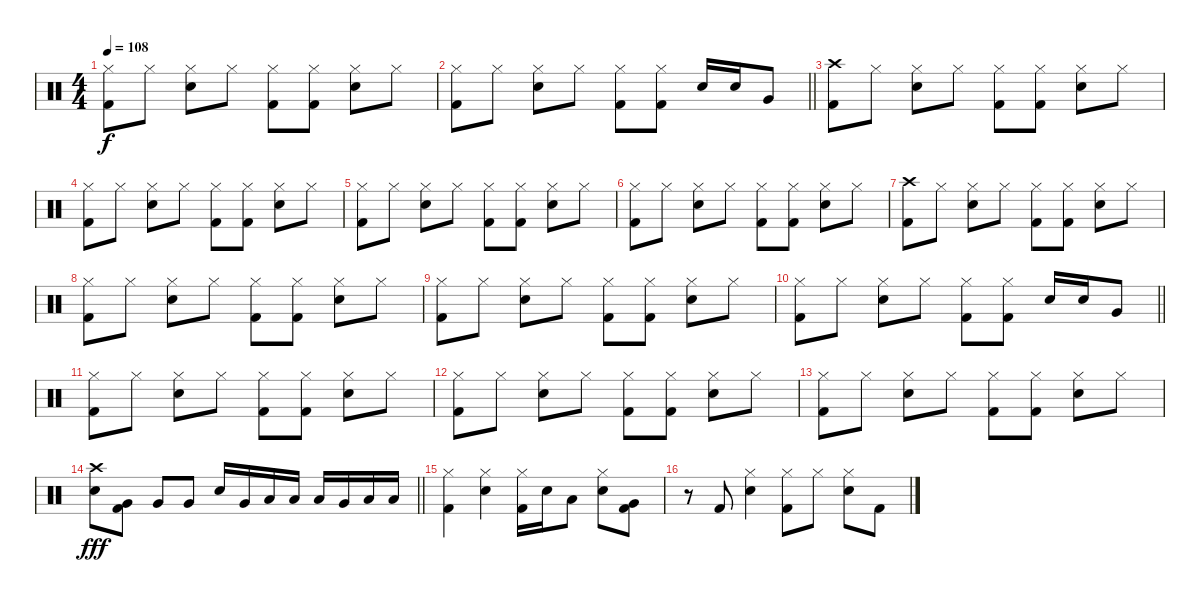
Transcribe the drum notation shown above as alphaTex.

\track "" {instrument percussion}
\staff {score}
\articulation defaults
\ts (4 4)
\tempo 108
\clef neutral
\ks c
("Kick (hit) 2" "Hi-Hat (closed)").8{dy f} "Hi-Hat (closed)".8 ("Electric Snare (hit)" "Hi-Hat (closed)").8 "Hi-Hat (closed)".8 ("Kick (hit) 2" "Hi-Hat (closed)").8 ("Hi-Hat (closed)" "Kick (hit) 2").8 ("Electric Snare (hit)" "Hi-Hat (closed)").8 "Hi-Hat (closed)".8 |
\barLineRight lightlight
("Kick (hit) 2" "Hi-Hat (closed)").8 "Hi-Hat (closed)".8 ("Electric Snare (hit)" "Hi-Hat (closed)").8 "Hi-Hat (closed)".8 ("Kick (hit) 2" "Hi-Hat (closed)").8 ("Hi-Hat (closed)" "Kick (hit) 2").8 "Electric Snare (hit)".16 "Electric Snare (hit)".16 "Very Low Tom (hit)".8 |
("Crash high (hit)" "Kick (hit) 2").8 "Hi-Hat (closed)".8 ("Electric Snare (hit)" "Hi-Hat (closed)").8 "Hi-Hat (closed)".8 ("Kick (hit) 2" "Hi-Hat (closed)").8 ("Hi-Hat (closed)" "Kick (hit) 2").8 ("Electric Snare (hit)" "Hi-Hat (closed)").8 "Hi-Hat (closed)".8 |
("Kick (hit) 2" "Hi-Hat (closed)").8 "Hi-Hat (closed)".8 ("Electric Snare (hit)" "Hi-Hat (closed)").8 "Hi-Hat (closed)".8 ("Kick (hit) 2" "Hi-Hat (closed)").8 ("Hi-Hat (closed)" "Kick (hit) 2").8 ("Electric Snare (hit)" "Hi-Hat (closed)").8 "Hi-Hat (closed)".8 |
("Kick (hit) 2" "Hi-Hat (closed)").8 "Hi-Hat (closed)".8 ("Electric Snare (hit)" "Hi-Hat (closed)").8 "Hi-Hat (closed)".8 ("Kick (hit) 2" "Hi-Hat (closed)").8 ("Hi-Hat (closed)" "Kick (hit) 2").8 ("Electric Snare (hit)" "Hi-Hat (closed)").8 "Hi-Hat (closed)".8 |
("Kick (hit) 2" "Hi-Hat (closed)").8 "Hi-Hat (closed)".8 ("Electric Snare (hit)" "Hi-Hat (closed)").8 "Hi-Hat (closed)".8 ("Kick (hit) 2" "Hi-Hat (closed)").8 ("Hi-Hat (closed)" "Kick (hit) 2").8 ("Electric Snare (hit)" "Hi-Hat (closed)").8 "Hi-Hat (closed)".8 |
("Crash high (hit)" "Kick (hit) 2").8 "Hi-Hat (closed)".8 ("Electric Snare (hit)" "Hi-Hat (closed)").8 "Hi-Hat (closed)".8 ("Kick (hit) 2" "Hi-Hat (closed)").8 ("Hi-Hat (closed)" "Kick (hit) 2").8 ("Electric Snare (hit)" "Hi-Hat (closed)").8 "Hi-Hat (closed)".8 |
("Kick (hit) 2" "Hi-Hat (closed)").8 "Hi-Hat (closed)".8 ("Electric Snare (hit)" "Hi-Hat (closed)").8 "Hi-Hat (closed)".8 ("Kick (hit) 2" "Hi-Hat (closed)").8 ("Hi-Hat (closed)" "Kick (hit) 2").8 ("Electric Snare (hit)" "Hi-Hat (closed)").8 "Hi-Hat (closed)".8 |
("Kick (hit) 2" "Hi-Hat (closed)").8 "Hi-Hat (closed)".8 ("Electric Snare (hit)" "Hi-Hat (closed)").8 "Hi-Hat (closed)".8 ("Kick (hit) 2" "Hi-Hat (closed)").8 ("Hi-Hat (closed)" "Kick (hit) 2").8 ("Electric Snare (hit)" "Hi-Hat (closed)").8 "Hi-Hat (closed)".8 |
\barLineRight lightlight
("Kick (hit) 2" "Hi-Hat (closed)").8 "Hi-Hat (closed)".8 ("Electric Snare (hit)" "Hi-Hat (closed)").8 "Hi-Hat (closed)".8 ("Kick (hit) 2" "Hi-Hat (closed)").8 ("Hi-Hat (closed)" "Kick (hit) 2").8 "Electric Snare (hit)".16 "Electric Snare (hit)".16 "Very Low Tom (hit)".8 |
\section ("" "")
("Kick (hit) 2" "Hi-Hat (closed)").8 "Hi-Hat (closed)".8 ("Electric Snare (hit)" "Hi-Hat (closed)").8 "Hi-Hat (closed)".8 ("Kick (hit) 2" "Hi-Hat (closed)").8 ("Hi-Hat (closed)" "Kick (hit) 2").8 ("Electric Snare (hit)" "Hi-Hat (closed)").8 "Hi-Hat (closed)".8 |
("Kick (hit) 2" "Hi-Hat (closed)").8 "Hi-Hat (closed)".8 ("Electric Snare (hit)" "Hi-Hat (closed)").8 "Hi-Hat (closed)".8 ("Kick (hit) 2" "Hi-Hat (closed)").8 ("Hi-Hat (closed)" "Kick (hit) 2").8 ("Electric Snare (hit)" "Hi-Hat (closed)").8 "Hi-Hat (closed)".8 |
("Kick (hit) 2" "Hi-Hat (closed)").8 "Hi-Hat (closed)".8 ("Electric Snare (hit)" "Hi-Hat (closed)").8 "Hi-Hat (closed)".8 ("Kick (hit) 2" "Hi-Hat (closed)").8 ("Hi-Hat (closed)" "Kick (hit) 2").8 ("Electric Snare (hit)" "Hi-Hat (closed)").8 "Hi-Hat (closed)".8 |
\barLineRight lightlight
("Crash high (hit)" "Electric Snare (hit)").8{dy fff} ("Kick (hit) 2" "Very Low Tom (hit)").8 "Very Low Tom (hit)".8 "Very Low Tom (hit)".8 "Electric Snare (hit)".16 "Very Low Tom (hit)".16 "Low Floor Tom (hit)".16 "Low Floor Tom (hit)".16 "Low Tom (hit)".16 "Very Low Tom (hit)".16 "Low Floor Tom (hit)".16 "Low Floor Tom (hit)".16 |
\section ("" "")
("Hi-Hat (closed)" "Kick (hit) 2").4 ("Hi-Hat (closed)" "Electric Snare (hit)").4 ("Hi-Hat (closed)" "Kick (hit) 2").16 "Electric Snare (hit)".16 "Low Floor Tom (hit)".8 ("Electric Snare (hit)" "Hi-Hat (closed)").8 ("Very Low Tom (hit)" "Kick (hit) 2").8 |
r.8 "Kick (hit) 2".8 ("Electric Snare (hit)" "Hi-Hat (closed)").4 ("Kick (hit) 2" "Hi-Hat (closed)").8 "Hi-Hat (closed)".8 ("Hi-Hat (closed)" "Electric Snare (hit)").8 "Kick (hit) 2".8
